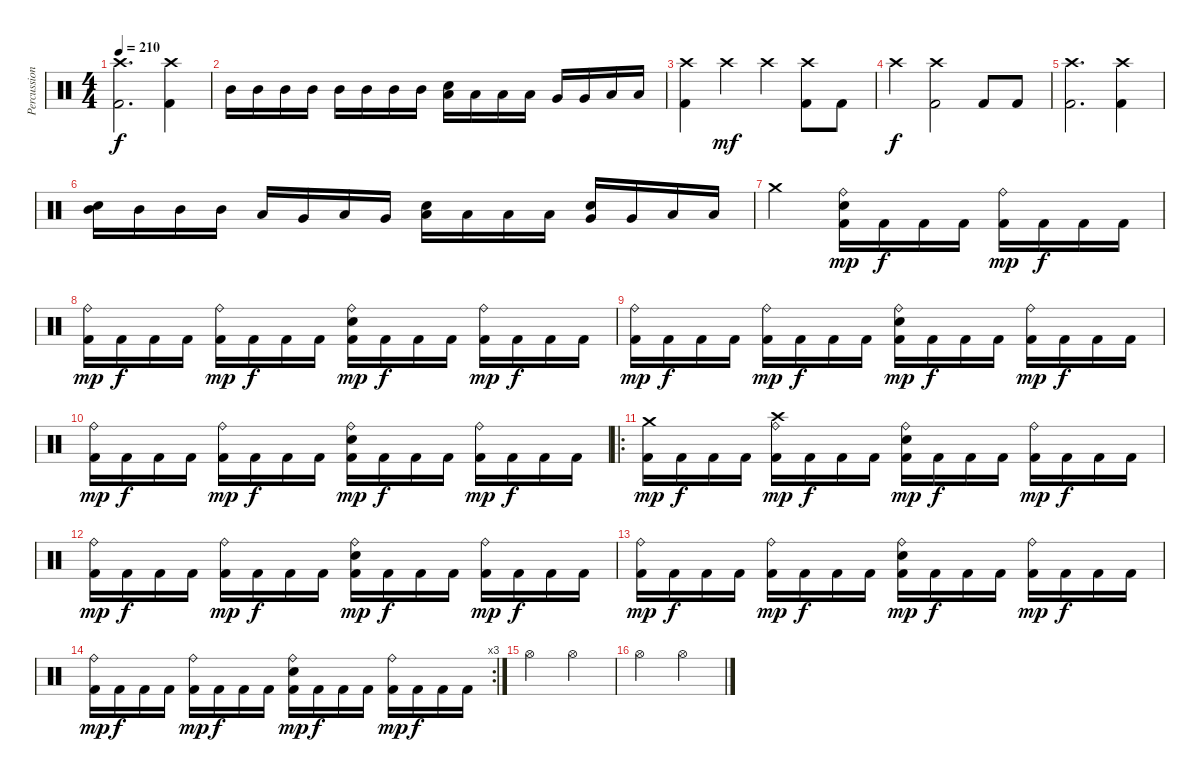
\track ("Percussion" "Percussion") {instrument percussion}
\staff {score}
\articulation defaults
\ts (4 4)
\tempo 210
\clef neutral
\ks c
("Crash high (hit)" "Kick (hit) 2").2{d dy f} ("Crash high (hit)" "Kick (hit) 2").4 |
"Mid Tom (hit)".16 "Mid Tom (hit)".16 "Mid Tom (hit)".16 "Mid Tom (hit)".16 "Mid Tom (hit)".16 "Mid Tom (hit)".16 "Mid Tom (hit)".16 "Mid Tom (hit)".16 ("Electric Snare (hit)" "Low Tom (hit)").16 "Low Tom (hit)".16 "Low Tom (hit)".16 "Low Tom (hit)".16 "Very Low Tom (hit)".16 "Very Low Tom (hit)".16 "Low Floor Tom (hit)".16 "Low Floor Tom (hit)".16 |
("Crash high (hit)" "Kick (hit) 2").4 "Crash high (hit)".4{dy mf} "Crash high (hit)".4 ("Crash high (hit)" "Kick (hit) 2").8 "Kick (hit) 2".8 |
"Crash high (hit)".4{dy f} ("Crash high (hit)" "Kick (hit) 2").2 "Kick (hit) 2".8 "Kick (hit) 2".8 |
("Crash high (hit)" "Kick (hit) 2").2{d} ("Crash high (hit)" "Kick (hit) 2").4 |
("Electric Snare (hit)" "Mid Tom (hit)").16 "Mid Tom (hit)".16 "Mid Tom (hit)".16 "Mid Tom (hit)".16 "Low Tom (hit)".16 "Very Low Tom (hit)".16 "Low Floor Tom (hit)".16 "Very Low Tom (hit)".16 ("Electric Snare (hit)" "Low Tom (hit)").16 "Low Tom (hit)".16 "Low Tom (hit)".16 "Low Tom (hit)".16 ("Electric Snare (hit)" "Very Low Tom (hit)").16 "Very Low Tom (hit)".16 "Low Floor Tom (hit)".16 "Low Floor Tom (hit)".16 |
"Crash medium (hit)".2 ("Ride (bell)" "Electric Snare (hit)" "Kick (hit) 2").16{dy mp} "Kick (hit) 2".16{dy f} "Kick (hit) 2".16 "Kick (hit) 2".16 ("Ride (bell)" "Kick (hit) 2").16{dy mp} "Kick (hit) 2".16{dy f} "Kick (hit) 2".16 "Kick (hit) 2".16 |
("Ride (bell)" "Kick (hit) 2").16{dy mp} "Kick (hit) 2".16{dy f} "Kick (hit) 2".16 "Kick (hit) 2".16 ("Ride (bell)" "Kick (hit) 2").16{dy mp} "Kick (hit) 2".16{dy f} "Kick (hit) 2".16 "Kick (hit) 2".16 ("Ride (bell)" "Electric Snare (hit)" "Kick (hit) 2").16{dy mp} "Kick (hit) 2".16{dy f} "Kick (hit) 2".16 "Kick (hit) 2".16 ("Ride (bell)" "Kick (hit) 2").16{dy mp} "Kick (hit) 2".16{dy f} "Kick (hit) 2".16 "Kick (hit) 2".16 |
("Ride (bell)" "Kick (hit) 2").16{dy mp} "Kick (hit) 2".16{dy f} "Kick (hit) 2".16 "Kick (hit) 2".16 ("Ride (bell)" "Kick (hit) 2").16{dy mp} "Kick (hit) 2".16{dy f} "Kick (hit) 2".16 "Kick (hit) 2".16 ("Ride (bell)" "Electric Snare (hit)" "Kick (hit) 2").16{dy mp} "Kick (hit) 2".16{dy f} "Kick (hit) 2".16 "Kick (hit) 2".16 ("Ride (bell)" "Kick (hit) 2").16{dy mp} "Kick (hit) 2".16{dy f} "Kick (hit) 2".16 "Kick (hit) 2".16 |
("Ride (bell)" "Kick (hit) 2").16{dy mp} "Kick (hit) 2".16{dy f} "Kick (hit) 2".16 "Kick (hit) 2".16 ("Ride (bell)" "Kick (hit) 2").16{dy mp} "Kick (hit) 2".16{dy f} "Kick (hit) 2".16 "Kick (hit) 2".16 ("Ride (bell)" "Electric Snare (hit)" "Kick (hit) 2").16{dy mp} "Kick (hit) 2".16{dy f} "Kick (hit) 2".16 "Kick (hit) 2".16 ("Ride (bell)" "Kick (hit) 2").16{dy mp} "Kick (hit) 2".16{dy f} "Kick (hit) 2".16 "Kick (hit) 2".16 |
\ro
("Crash medium (hit)" "Kick (hit) 2").16{dy mp} "Kick (hit) 2".16{dy f} "Kick (hit) 2".16 "Kick (hit) 2".16 ("Ride (bell)" "Crash high (hit)" "Kick (hit) 2").16{dy mp} "Kick (hit) 2".16{dy f} "Kick (hit) 2".16 "Kick (hit) 2".16 ("Ride (bell)" "Electric Snare (hit)" "Kick (hit) 2").16{dy mp} "Kick (hit) 2".16{dy f} "Kick (hit) 2".16 "Kick (hit) 2".16 ("Ride (bell)" "Kick (hit) 2").16{dy mp} "Kick (hit) 2".16{dy f} "Kick (hit) 2".16 "Kick (hit) 2".16 |
("Ride (bell)" "Kick (hit) 2").16{dy mp} "Kick (hit) 2".16{dy f} "Kick (hit) 2".16 "Kick (hit) 2".16 ("Ride (bell)" "Kick (hit) 2").16{dy mp} "Kick (hit) 2".16{dy f} "Kick (hit) 2".16 "Kick (hit) 2".16 ("Ride (bell)" "Electric Snare (hit)" "Kick (hit) 2").16{dy mp} "Kick (hit) 2".16{dy f} "Kick (hit) 2".16 "Kick (hit) 2".16 ("Ride (bell)" "Kick (hit) 2").16{dy mp} "Kick (hit) 2".16{dy f} "Kick (hit) 2".16 "Kick (hit) 2".16 |
("Ride (bell)" "Kick (hit) 2").16{dy mp} "Kick (hit) 2".16{dy f} "Kick (hit) 2".16 "Kick (hit) 2".16 ("Ride (bell)" "Kick (hit) 2").16{dy mp} "Kick (hit) 2".16{dy f} "Kick (hit) 2".16 "Kick (hit) 2".16 ("Ride (bell)" "Electric Snare (hit)" "Kick (hit) 2").16{dy mp} "Kick (hit) 2".16{dy f} "Kick (hit) 2".16 "Kick (hit) 2".16 ("Ride (bell)" "Kick (hit) 2").16{dy mp} "Kick (hit) 2".16{dy f} "Kick (hit) 2".16 "Kick (hit) 2".16 |
\rc 3
("Ride (bell)" "Kick (hit) 2").16{dy mp} "Kick (hit) 2".16{dy f} "Kick (hit) 2".16 "Kick (hit) 2".16 ("Ride (bell)" "Kick (hit) 2").16{dy mp} "Kick (hit) 2".16{dy f} "Kick (hit) 2".16 "Kick (hit) 2".16 ("Ride (bell)" "Electric Snare (hit)" "Kick (hit) 2").16{dy mp} "Kick (hit) 2".16{dy f} "Kick (hit) 2".16 "Kick (hit) 2".16 ("Ride (bell)" "Kick (hit) 2").16{dy mp} "Kick (hit) 2".16{dy f} "Kick (hit) 2".16 "Kick (hit) 2".16 |
"Hi-Hat (open)".2 "Hi-Hat (open)".2 |
"Hi-Hat (open)".2 "Hi-Hat (open)".2
